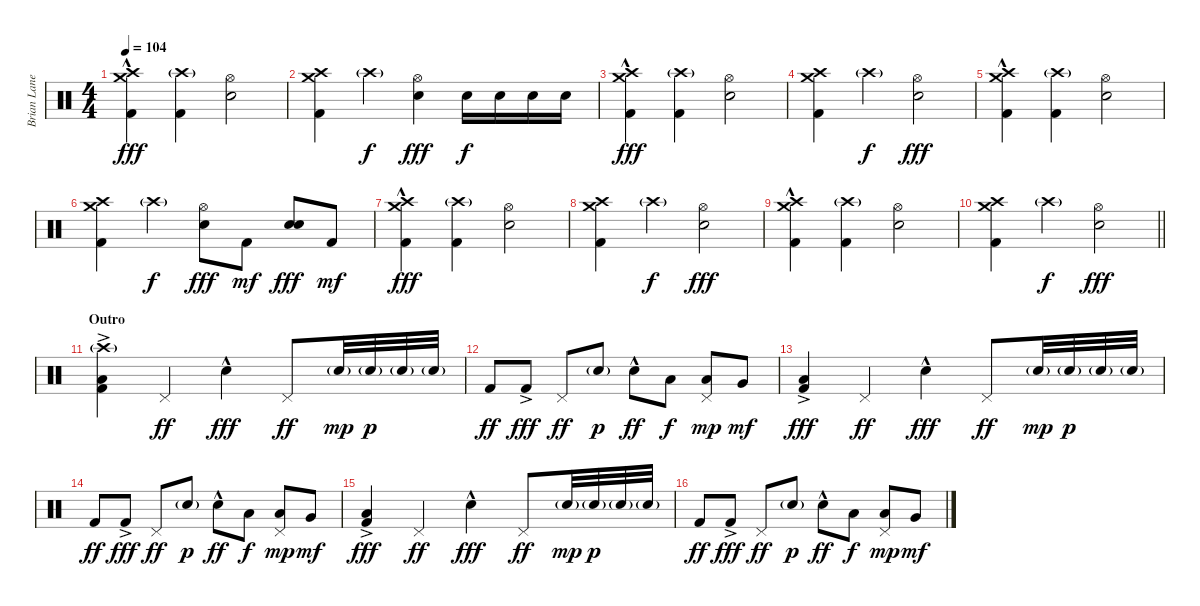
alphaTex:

\track ("Brian Lane - Drums" "Brian Lane") {instrument percussion}
\staff {score}
\articulation defaults
\ts (4 4)
\tempo 104
\clef neutral
\ks c
("Crash high (hit)" "Crash medium (hit)" "Kick (hit) 2"{hac}).4{dy fff} ("Crash high (hit)"{g} "Kick (hit) 2").4 ("Hi-Hat (open)" "Snare (hit) 2").2 |
("Crash medium (hit)" "Crash high (hit)" "Kick (hit) 2").4 "Crash high (hit)"{g}.4{dy f} ("Hi-Hat (open)" "Snare (hit) 2").4{dy fff} "Snare (hit) 2".16{dy f} "Snare (hit) 2".16 "Snare (hit) 2".16 "Snare (hit) 2".16 |
("Crash high (hit)" "Crash medium (hit)" "Kick (hit) 2"{hac}).4{dy fff} ("Crash high (hit)"{g} "Kick (hit) 2").4 ("Hi-Hat (open)" "Snare (hit) 2").2 |
("Crash medium (hit)" "Crash high (hit)" "Kick (hit) 2").4 "Crash high (hit)"{g}.4{dy f} ("Hi-Hat (open)" "Snare (hit) 2").2{dy fff} |
("Crash high (hit)" "Crash medium (hit)" "Kick (hit) 2"{hac}).4 ("Crash high (hit)"{g} "Kick (hit) 2").4 ("Hi-Hat (open)" "Snare (hit) 2").2 |
("Crash medium (hit)" "Crash high (hit)" "Kick (hit) 2").4 "Crash high (hit)"{g}.4{dy f} ("Hi-Hat (open)" "Snare (hit) 2").8{dy fff} "Kick (hit) 2".8{dy mf} ("Snare (hit) 2" "Snare (hit) 2").8{bd 60 dy fff} "Kick (hit) 2".8{dy mf} |
("Crash high (hit)" "Crash medium (hit)" "Kick (hit) 2"{hac}).4{dy fff} ("Crash high (hit)"{g} "Kick (hit) 2").4 ("Hi-Hat (open)" "Snare (hit) 2").2 |
("Crash medium (hit)" "Crash high (hit)" "Kick (hit) 2").4 "Crash high (hit)"{g}.4{dy f} ("Hi-Hat (open)" "Snare (hit) 2").2{dy fff} |
("Crash high (hit)" "Crash medium (hit)" "Kick (hit) 2"{hac}).4 ("Crash high (hit)"{g} "Kick (hit) 2").4 ("Hi-Hat (open)" "Snare (hit) 2").2 |
\barLineRight lightlight
("Crash medium (hit)" "Crash high (hit)" "Kick (hit) 2").4 "Crash high (hit)"{g}.4{dy f} ("Hi-Hat (open)" "Snare (hit) 2").2{dy fff} |
\section ("" "Outro")
("Crash high (hit)"{g} "Low Floor Tom (hit)" "Kick (hit) 2"{ac}).4 "Pedal Hi-Hat (hit)".4{dy ff} "Snare (hit) 2"{hac}.4{dy fff} "Pedal Hi-Hat (hit)".8{dy ff} "Snare (hit) 2"{g}.32{dy mp} "Snare (hit) 2"{g}.32{dy p} "Snare (hit) 2"{g}.32 "Snare (hit) 2"{g}.32 |
"Kick (hit) 2".8{dy ff} "Kick (hit) 2"{ac}.8{dy fff} "Pedal Hi-Hat (hit)".8{dy ff} "Snare (hit) 2"{g}.8{dy p} "Snare (hit) 2"{hac}.8{dy ff} "Low Tom (hit)".8{dy f} ("Pedal Hi-Hat (hit)" "Low Tom (hit)").8{dy mp} "Very Low Tom (hit)".8{dy mf} |
("Low Floor Tom (hit)" "Kick (hit) 2"{ac}).4{dy fff} "Pedal Hi-Hat (hit)".4{dy ff} "Snare (hit) 2"{hac}.4{dy fff} "Pedal Hi-Hat (hit)".8{dy ff} "Snare (hit) 2"{g}.32{dy mp} "Snare (hit) 2"{g}.32{dy p} "Snare (hit) 2"{g}.32 "Snare (hit) 2"{g}.32 |
"Kick (hit) 2".8{dy ff} "Kick (hit) 2"{ac}.8{dy fff} "Pedal Hi-Hat (hit)".8{dy ff} "Snare (hit) 2"{g}.8{dy p} "Snare (hit) 2"{hac}.8{dy ff} "Low Tom (hit)".8{dy f} ("Pedal Hi-Hat (hit)" "Low Tom (hit)").8{dy mp} "Very Low Tom (hit)".8{dy mf} |
("Low Floor Tom (hit)" "Kick (hit) 2"{ac}).4{dy fff} "Pedal Hi-Hat (hit)".4{dy ff} "Snare (hit) 2"{hac}.4{dy fff} "Pedal Hi-Hat (hit)".8{dy ff} "Snare (hit) 2"{g}.32{dy mp} "Snare (hit) 2"{g}.32{dy p} "Snare (hit) 2"{g}.32 "Snare (hit) 2"{g}.32 |
"Kick (hit) 2".8{dy ff} "Kick (hit) 2"{ac}.8{dy fff} "Pedal Hi-Hat (hit)".8{dy ff} "Snare (hit) 2"{g}.8{dy p} "Snare (hit) 2"{hac}.8{dy ff} "Low Tom (hit)".8{dy f} ("Pedal Hi-Hat (hit)" "Low Tom (hit)").8{dy mp} "Very Low Tom (hit)".8{dy mf}
